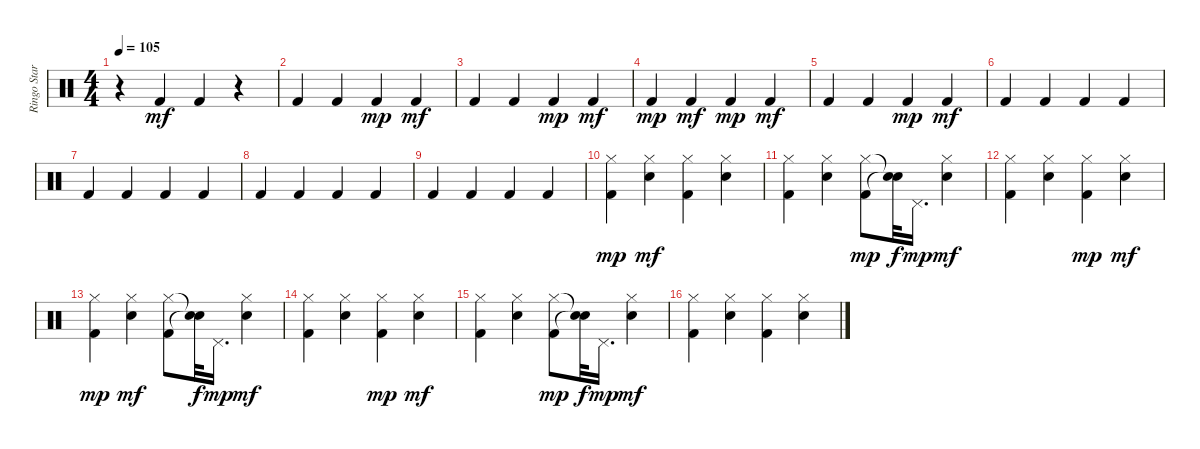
\track ("Ringo Starr" "Ringo Star") {instrument percussion}
\staff {score}
\articulation defaults
\ts (4 4)
\tempo 105
\clef neutral
\ks c
r.4{dy mp} "Kick (hit) 2".4{dy mf} "Kick (hit) 2".4 r.4 |
"Kick (hit) 2".4 "Kick (hit) 2".4 "Kick (hit) 2".4{dy mp} "Kick (hit) 2".4{dy mf} |
"Kick (hit) 2".4 "Kick (hit) 2".4 "Kick (hit) 2".4{dy mp} "Kick (hit) 2".4{dy mf} |
"Kick (hit) 2".4{dy mp} "Kick (hit) 2".4{dy mf} "Kick (hit) 2".4{dy mp} "Kick (hit) 2".4{dy mf} |
"Kick (hit) 2".4 "Kick (hit) 2".4 "Kick (hit) 2".4{dy mp} "Kick (hit) 2".4{dy mf} |
"Kick (hit) 2".4 "Kick (hit) 2".4 "Kick (hit) 2".4 "Kick (hit) 2".4 |
"Kick (hit) 2".4 "Kick (hit) 2".4 "Kick (hit) 2".4 "Kick (hit) 2".4 |
"Kick (hit) 2".4 "Kick (hit) 2".4 "Kick (hit) 2".4 "Kick (hit) 2".4 |
"Kick (hit) 2".4 "Kick (hit) 2".4 "Kick (hit) 2".4 "Kick (hit) 2".4 |
("Kick (hit) 2" "Hi-Hat (closed)").4{dy mp} ("Snare (hit) 2" "Hi-Hat (closed)").4{dy mf} ("Kick (hit) 2" "Hi-Hat (closed)").4 ("Snare (hit) 2" "Hi-Hat (closed)").4 |
("Kick (hit) 2" "Hi-Hat (closed)").4 ("Snare (hit) 2" "Hi-Hat (closed)").4 ("Kick (hit) 2" "Hi-Hat (closed)").8{dy mp} ("Snare (hit)"{t} "Snare (hit)"{t}).32{dy f} "Pedal Hi-Hat (hit)".16{d dy mp} ("Snare (hit) 2" "Hi-Hat (closed)").4{dy mf} |
("Kick (hit) 2" "Hi-Hat (closed)").4 ("Snare (hit) 2" "Hi-Hat (closed)").4 ("Kick (hit) 2" "Hi-Hat (closed)").4{dy mp} ("Snare (hit) 2" "Hi-Hat (closed)").4{dy mf} |
("Kick (hit) 2" "Hi-Hat (closed)").4{dy mp} ("Snare (hit) 2" "Hi-Hat (closed)").4{dy mf} ("Kick (hit) 2" "Hi-Hat (closed)").8 ("Snare (hit)"{t} "Snare (hit)"{t}).32{dy f} "Pedal Hi-Hat (hit)".16{d dy mp} ("Snare (hit) 2" "Hi-Hat (closed)").4{dy mf} |
("Kick (hit) 2" "Hi-Hat (closed)").4 ("Snare (hit) 2" "Hi-Hat (closed)").4 ("Kick (hit) 2" "Hi-Hat (closed)").4{dy mp} ("Snare (hit) 2" "Hi-Hat (closed)").4{dy mf} |
("Kick (hit) 2" "Hi-Hat (closed)").4 ("Snare (hit) 2" "Hi-Hat (closed)").4 ("Kick (hit) 2" "Hi-Hat (closed)").8{dy mp} ("Snare (hit)"{t} "Snare (hit)"{t}).32{dy f} "Pedal Hi-Hat (hit)".16{d dy mp} ("Snare (hit) 2" "Hi-Hat (closed)").4{dy mf} |
("Kick (hit) 2" "Hi-Hat (closed)").4 ("Snare (hit) 2" "Hi-Hat (closed)").4 ("Kick (hit) 2" "Hi-Hat (closed)").4 ("Snare (hit) 2" "Hi-Hat (closed)").4
